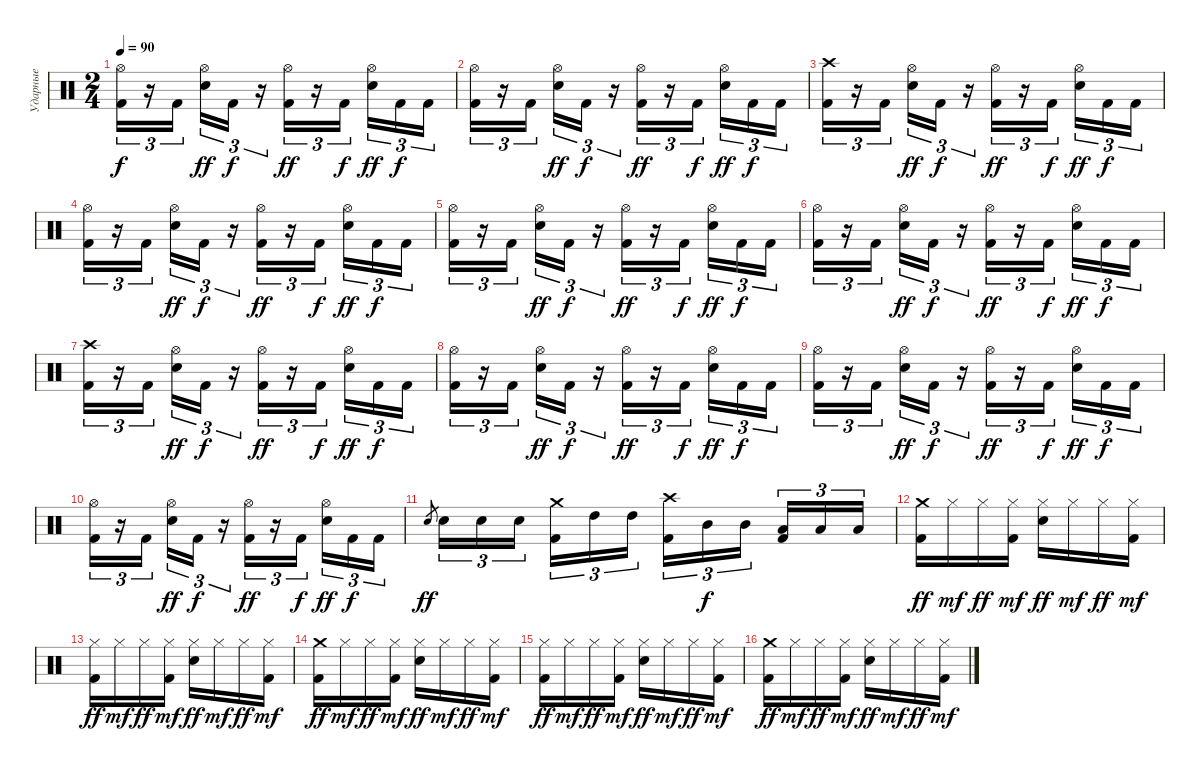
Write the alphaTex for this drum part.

\track ("Ударные" "Ударные") {instrument percussion}
\staff {score}
\articulation defaults
\ts (2 4)
\tempo 90
\clef neutral
\ks c
("Hi-Hat (open)" "Kick (hit) 2").16{tu (3 2) dy f} r.16{tu (3 2)} "Kick (hit) 2".16{tu (3 2) beam splitsecondary} ("Hi-Hat (open)" "Electric Snare (hit)").16{tu (3 2) dy ff} "Kick (hit) 2".16{tu (3 2) dy f} r.16{tu (3 2)} ("Hi-Hat (open)" "Kick (hit) 2").16{tu (3 2) dy ff} r.16{tu (3 2)} "Kick (hit) 2".16{tu (3 2) dy f beam splitsecondary} ("Hi-Hat (open)" "Electric Snare (hit)").16{tu (3 2) dy ff} "Kick (hit) 2".16{tu (3 2) dy f} "Kick (hit) 2".16{tu (3 2)} |
("Hi-Hat (open)" "Kick (hit) 2").16{tu (3 2)} r.16{tu (3 2)} "Kick (hit) 2".16{tu (3 2) beam splitsecondary} ("Hi-Hat (open)" "Electric Snare (hit)").16{tu (3 2) dy ff} "Kick (hit) 2".16{tu (3 2) dy f} r.16{tu (3 2)} ("Hi-Hat (open)" "Kick (hit) 2").16{tu (3 2) dy ff} r.16{tu (3 2)} "Kick (hit) 2".16{tu (3 2) dy f beam splitsecondary} ("Hi-Hat (open)" "Electric Snare (hit)").16{tu (3 2) dy ff} "Kick (hit) 2".16{tu (3 2) dy f} "Kick (hit) 2".16{tu (3 2)} |
("Crash high (hit)" "Kick (hit) 2").16{tu (3 2)} r.16{tu (3 2)} "Kick (hit) 2".16{tu (3 2) beam splitsecondary} ("Hi-Hat (open)" "Electric Snare (hit)").16{tu (3 2) dy ff} "Kick (hit) 2".16{tu (3 2) dy f} r.16{tu (3 2)} ("Hi-Hat (open)" "Kick (hit) 2").16{tu (3 2) dy ff} r.16{tu (3 2)} "Kick (hit) 2".16{tu (3 2) dy f beam splitsecondary} ("Hi-Hat (open)" "Electric Snare (hit)").16{tu (3 2) dy ff} "Kick (hit) 2".16{tu (3 2) dy f} "Kick (hit) 2".16{tu (3 2)} |
("Hi-Hat (open)" "Kick (hit) 2").16{tu (3 2)} r.16{tu (3 2)} "Kick (hit) 2".16{tu (3 2) beam splitsecondary} ("Hi-Hat (open)" "Electric Snare (hit)").16{tu (3 2) dy ff} "Kick (hit) 2".16{tu (3 2) dy f} r.16{tu (3 2)} ("Hi-Hat (open)" "Kick (hit) 2").16{tu (3 2) dy ff} r.16{tu (3 2)} "Kick (hit) 2".16{tu (3 2) dy f beam splitsecondary} ("Hi-Hat (open)" "Electric Snare (hit)").16{tu (3 2) dy ff} "Kick (hit) 2".16{tu (3 2) dy f} "Kick (hit) 2".16{tu (3 2)} |
("Hi-Hat (open)" "Kick (hit) 2").16{tu (3 2)} r.16{tu (3 2)} "Kick (hit) 2".16{tu (3 2) beam splitsecondary} ("Hi-Hat (open)" "Electric Snare (hit)").16{tu (3 2) dy ff} "Kick (hit) 2".16{tu (3 2) dy f} r.16{tu (3 2)} ("Hi-Hat (open)" "Kick (hit) 2").16{tu (3 2) dy ff} r.16{tu (3 2)} "Kick (hit) 2".16{tu (3 2) dy f beam splitsecondary} ("Hi-Hat (open)" "Electric Snare (hit)").16{tu (3 2) dy ff} "Kick (hit) 2".16{tu (3 2) dy f} "Kick (hit) 2".16{tu (3 2)} |
("Hi-Hat (open)" "Kick (hit) 2").16{tu (3 2)} r.16{tu (3 2)} "Kick (hit) 2".16{tu (3 2) beam splitsecondary} ("Hi-Hat (open)" "Electric Snare (hit)").16{tu (3 2) dy ff} "Kick (hit) 2".16{tu (3 2) dy f} r.16{tu (3 2)} ("Hi-Hat (open)" "Kick (hit) 2").16{tu (3 2) dy ff} r.16{tu (3 2)} "Kick (hit) 2".16{tu (3 2) dy f beam splitsecondary} ("Hi-Hat (open)" "Electric Snare (hit)").16{tu (3 2) dy ff} "Kick (hit) 2".16{tu (3 2) dy f} "Kick (hit) 2".16{tu (3 2)} |
("Crash high (hit)" "Kick (hit) 2").16{tu (3 2)} r.16{tu (3 2)} "Kick (hit) 2".16{tu (3 2) beam splitsecondary} ("Hi-Hat (open)" "Electric Snare (hit)").16{tu (3 2) dy ff} "Kick (hit) 2".16{tu (3 2) dy f} r.16{tu (3 2)} ("Hi-Hat (open)" "Kick (hit) 2").16{tu (3 2) dy ff} r.16{tu (3 2)} "Kick (hit) 2".16{tu (3 2) dy f beam splitsecondary} ("Hi-Hat (open)" "Electric Snare (hit)").16{tu (3 2) dy ff} "Kick (hit) 2".16{tu (3 2) dy f} "Kick (hit) 2".16{tu (3 2)} |
("Hi-Hat (open)" "Kick (hit) 2").16{tu (3 2)} r.16{tu (3 2)} "Kick (hit) 2".16{tu (3 2) beam splitsecondary} ("Hi-Hat (open)" "Electric Snare (hit)").16{tu (3 2) dy ff} "Kick (hit) 2".16{tu (3 2) dy f} r.16{tu (3 2)} ("Hi-Hat (open)" "Kick (hit) 2").16{tu (3 2) dy ff} r.16{tu (3 2)} "Kick (hit) 2".16{tu (3 2) dy f beam splitsecondary} ("Hi-Hat (open)" "Electric Snare (hit)").16{tu (3 2) dy ff} "Kick (hit) 2".16{tu (3 2) dy f} "Kick (hit) 2".16{tu (3 2)} |
("Hi-Hat (open)" "Kick (hit) 2").16{tu (3 2)} r.16{tu (3 2)} "Kick (hit) 2".16{tu (3 2) beam splitsecondary} ("Hi-Hat (open)" "Electric Snare (hit)").16{tu (3 2) dy ff} "Kick (hit) 2".16{tu (3 2) dy f} r.16{tu (3 2)} ("Hi-Hat (open)" "Kick (hit) 2").16{tu (3 2) dy ff} r.16{tu (3 2)} "Kick (hit) 2".16{tu (3 2) dy f beam splitsecondary} ("Hi-Hat (open)" "Electric Snare (hit)").16{tu (3 2) dy ff} "Kick (hit) 2".16{tu (3 2) dy f} "Kick (hit) 2".16{tu (3 2)} |
("Hi-Hat (open)" "Kick (hit) 2").16{tu (3 2)} r.16{tu (3 2)} "Kick (hit) 2".16{tu (3 2) beam splitsecondary} ("Hi-Hat (open)" "Electric Snare (hit)").16{tu (3 2) dy ff} "Kick (hit) 2".16{tu (3 2) dy f} r.16{tu (3 2)} ("Hi-Hat (open)" "Kick (hit) 2").16{tu (3 2) dy ff} r.16{tu (3 2)} "Kick (hit) 2".16{tu (3 2) dy f beam splitsecondary} ("Hi-Hat (open)" "Electric Snare (hit)").16{tu (3 2) dy ff} "Kick (hit) 2".16{tu (3 2) dy f} "Kick (hit) 2".16{tu (3 2)} |
"Electric Snare (hit)".8{gr dy ff} "Electric Snare (hit)".16{tu (3 2)} "Electric Snare (hit)".16{tu (3 2)} "Electric Snare (hit)".16{tu (3 2) beam splitsecondary} ("Crash medium (hit)" "Kick (hit) 2").16{tu (3 2)} "High Tom (hit)".16{tu (3 2)} "High Tom (hit)".16{tu (3 2)} ("Crash high (hit)" "Kick (hit) 2").16{tu (3 2)} "Mid Tom (hit)".16{tu (3 2) dy f} "Mid Tom (hit)".16{tu (3 2) beam splitsecondary} ("Low Tom (hit)" "Kick (hit) 2").16{tu (3 2)} "Low Tom (hit)".16{tu (3 2)} "Low Tom (hit)".16{tu (3 2)} |
("Crash medium (hit)" "Kick (hit) 2").16{dy ff} "Hi-Hat (closed)".16{dy mf} "Hi-Hat (closed)".16{dy ff} ("Hi-Hat (closed)" "Kick (hit) 2").16{dy mf} ("Hi-Hat (closed)" "Electric Snare (hit)").16{dy ff} "Hi-Hat (closed)".16{dy mf} "Hi-Hat (closed)".16{dy ff} ("Hi-Hat (closed)" "Kick (hit) 2").16{dy mf} |
("Hi-Hat (closed)" "Kick (hit) 2").16{dy ff} "Hi-Hat (closed)".16{dy mf} "Hi-Hat (closed)".16{dy ff} ("Hi-Hat (closed)" "Kick (hit) 2").16{dy mf} ("Hi-Hat (closed)" "Electric Snare (hit)").16{dy ff} "Hi-Hat (closed)".16{dy mf} "Hi-Hat (closed)".16{dy ff} ("Hi-Hat (closed)" "Kick (hit) 2").16{dy mf} |
("Crash medium (hit)" "Kick (hit) 2").16{dy ff} "Hi-Hat (closed)".16{dy mf} "Hi-Hat (closed)".16{dy ff} ("Hi-Hat (closed)" "Kick (hit) 2").16{dy mf} ("Hi-Hat (closed)" "Electric Snare (hit)").16{dy ff} "Hi-Hat (closed)".16{dy mf} "Hi-Hat (closed)".16{dy ff} ("Hi-Hat (closed)" "Kick (hit) 2").16{dy mf} |
("Hi-Hat (closed)" "Kick (hit) 2").16{dy ff} "Hi-Hat (closed)".16{dy mf} "Hi-Hat (closed)".16{dy ff} ("Hi-Hat (closed)" "Kick (hit) 2").16{dy mf} ("Hi-Hat (closed)" "Electric Snare (hit)").16{dy ff} "Hi-Hat (closed)".16{dy mf} "Hi-Hat (closed)".16{dy ff} ("Hi-Hat (closed)" "Kick (hit) 2").16{dy mf} |
("Crash medium (hit)" "Kick (hit) 2").16{dy ff} "Hi-Hat (closed)".16{dy mf} "Hi-Hat (closed)".16{dy ff} ("Hi-Hat (closed)" "Kick (hit) 2").16{dy mf} ("Hi-Hat (closed)" "Electric Snare (hit)").16{dy ff} "Hi-Hat (closed)".16{dy mf} "Hi-Hat (closed)".16{dy ff} ("Hi-Hat (closed)" "Kick (hit) 2").16{dy mf}
